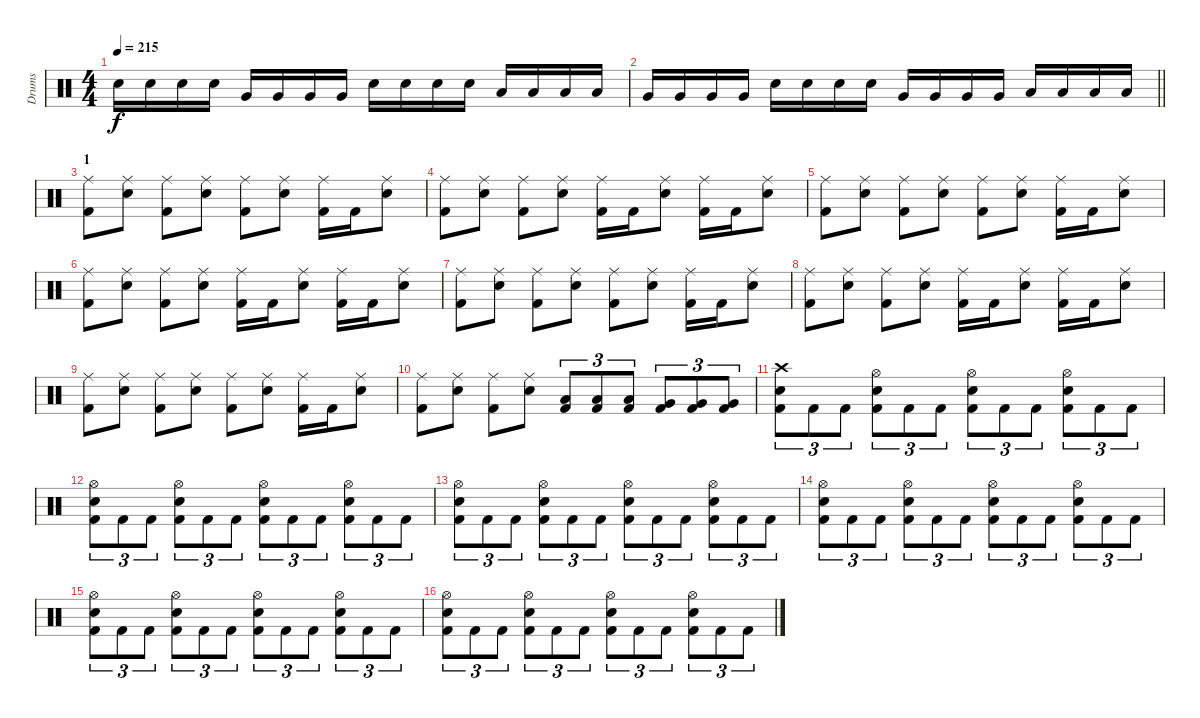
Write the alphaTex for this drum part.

\track ("Drums" "Drums") {instrument percussion}
\staff {score}
\articulation defaults
\ts (4 4)
\tempo 215
\clef neutral
\ks c "Electric Snare (hit)".16{dy f} "Electric Snare (hit)".16 "Electric Snare (hit)".16 "Electric Snare (hit)".16 "Very Low Tom (hit)".16 "Very Low Tom (hit)".16 "Very Low Tom (hit)".16 "Very Low Tom (hit)".16 "Electric Snare (hit)".16 "Electric Snare (hit)".16 "Electric Snare (hit)".16 "Electric Snare (hit)".16 "Low Tom (hit)".16 "Low Tom (hit)".16 "Low Tom (hit)".16 "Low Tom (hit)".16
|
\barLineRight lightlight "Very Low Tom (hit)".16 "Very Low Tom (hit)".16 "Very Low Tom (hit)".16 "Very Low Tom (hit)".16 "Electric Snare (hit)".16 "Electric Snare (hit)".16 "Electric Snare (hit)".16 "Electric Snare (hit)".16 "Very Low Tom (hit)".16 "Very Low Tom (hit)".16 "Very Low Tom (hit)".16 "Very Low Tom (hit)".16 "Low Floor Tom (hit)".16 "Low Floor Tom (hit)".16 "Low Floor Tom (hit)".16 "Low Floor Tom (hit)".16
|
\section ("" "1")
("Ride (middle)" "Kick (hit) 2").8 ("Ride (middle)" "Electric Snare (hit)").8 ("Ride (middle)" "Kick (hit) 2").8 ("Ride (middle)" "Electric Snare (hit)").8 ("Ride (middle)" "Kick (hit) 2").8 ("Ride (middle)" "Electric Snare (hit)").8 ("Ride (middle)" "Kick (hit) 2").16 "Kick (hit) 2".16 ("Ride (middle)" "Electric Snare (hit)").8 |
("Ride (middle)" "Kick (hit) 2").8 ("Ride (middle)" "Electric Snare (hit)").8 ("Ride (middle)" "Kick (hit) 2").8 ("Ride (middle)" "Electric Snare (hit)").8 ("Ride (middle)" "Kick (hit) 2").16 "Kick (hit) 2".16 ("Ride (middle)" "Electric Snare (hit)").8 ("Ride (middle)" "Kick (hit) 2").16 "Kick (hit) 2".16 ("Ride (middle)" "Electric Snare (hit)").8 |
("Ride (middle)" "Kick (hit) 2").8 ("Ride (middle)" "Electric Snare (hit)").8 ("Ride (middle)" "Kick (hit) 2").8 ("Ride (middle)" "Electric Snare (hit)").8 ("Ride (middle)" "Kick (hit) 2").8 ("Ride (middle)" "Electric Snare (hit)").8 ("Ride (middle)" "Kick (hit) 2").16 "Kick (hit) 2".16 ("Ride (middle)" "Electric Snare (hit)").8 |
("Ride (middle)" "Kick (hit) 2").8 ("Ride (middle)" "Electric Snare (hit)").8 ("Ride (middle)" "Kick (hit) 2").8 ("Ride (middle)" "Electric Snare (hit)").8 ("Ride (middle)" "Kick (hit) 2").16 "Kick (hit) 2".16 ("Ride (middle)" "Electric Snare (hit)").8 ("Ride (middle)" "Kick (hit) 2").16 "Kick (hit) 2".16 ("Ride (middle)" "Electric Snare (hit)").8 |
("Ride (middle)" "Kick (hit) 2").8 ("Ride (middle)" "Electric Snare (hit)").8 ("Ride (middle)" "Kick (hit) 2").8 ("Ride (middle)" "Electric Snare (hit)").8 ("Ride (middle)" "Kick (hit) 2").8 ("Ride (middle)" "Electric Snare (hit)").8 ("Ride (middle)" "Kick (hit) 2").16 "Kick (hit) 2".16 ("Ride (middle)" "Electric Snare (hit)").8 |
("Ride (middle)" "Kick (hit) 2").8 ("Ride (middle)" "Electric Snare (hit)").8 ("Ride (middle)" "Kick (hit) 2").8 ("Ride (middle)" "Electric Snare (hit)").8 ("Ride (middle)" "Kick (hit) 2").16 "Kick (hit) 2".16 ("Ride (middle)" "Electric Snare (hit)").8 ("Ride (middle)" "Kick (hit) 2").16 "Kick (hit) 2".16 ("Ride (middle)" "Electric Snare (hit)").8 |
("Ride (middle)" "Kick (hit) 2").8 ("Ride (middle)" "Electric Snare (hit)").8 ("Ride (middle)" "Kick (hit) 2").8 ("Ride (middle)" "Electric Snare (hit)").8 ("Ride (middle)" "Kick (hit) 2").8 ("Ride (middle)" "Electric Snare (hit)").8 ("Ride (middle)" "Kick (hit) 2").16 "Kick (hit) 2".16 ("Ride (middle)" "Electric Snare (hit)").8 |
("Ride (middle)" "Kick (hit) 2").8 ("Ride (middle)" "Electric Snare (hit)").8 ("Ride (middle)" "Kick (hit) 2").8 ("Ride (middle)" "Electric Snare (hit)").8 ("Low Tom (hit)" "Kick (hit) 2").8{tu (3 2)} ("Low Tom (hit)" "Kick (hit) 2").8{tu (3 2)} ("Low Tom (hit)" "Kick (hit) 2").8{tu (3 2)} ("Very Low Tom (hit)" "Kick (hit) 2").8{tu (3 2)} ("Very Low Tom (hit)" "Kick (hit) 2").8{tu (3 2)} ("Very Low Tom (hit)" "Kick (hit) 2").8{tu (3 2)} |
("Crash high (hit)" "Electric Snare (hit)" "Kick (hit) 2").8{tu (3 2)} "Kick (hit) 2".8{tu (3 2)} "Kick (hit) 2".8{tu (3 2)} ("Hi-Hat (open)" "Electric Snare (hit)" "Kick (hit) 2").8{tu (3 2)} "Kick (hit) 2".8{tu (3 2)} "Kick (hit) 2".8{tu (3 2)} ("Hi-Hat (open)" "Electric Snare (hit)" "Kick (hit) 2").8{tu (3 2)} "Kick (hit) 2".8{tu (3 2)} "Kick (hit) 2".8{tu (3 2)} ("Hi-Hat (open)" "Electric Snare (hit)" "Kick (hit) 2").8{tu (3 2)} "Kick (hit) 2".8{tu (3 2)} "Kick (hit) 2".8{tu (3 2)} |
("Hi-Hat (open)" "Electric Snare (hit)" "Kick (hit) 2").8{tu (3 2)} "Kick (hit) 2".8{tu (3 2)} "Kick (hit) 2".8{tu (3 2)} ("Hi-Hat (open)" "Electric Snare (hit)" "Kick (hit) 2").8{tu (3 2)} "Kick (hit) 2".8{tu (3 2)} "Kick (hit) 2".8{tu (3 2)} ("Hi-Hat (open)" "Electric Snare (hit)" "Kick (hit) 2").8{tu (3 2)} "Kick (hit) 2".8{tu (3 2)} "Kick (hit) 2".8{tu (3 2)} ("Hi-Hat (open)" "Electric Snare (hit)" "Kick (hit) 2").8{tu (3 2)} "Kick (hit) 2".8{tu (3 2)} "Kick (hit) 2".8{tu (3 2)} |
("Hi-Hat (open)" "Electric Snare (hit)" "Kick (hit) 2").8{tu (3 2)} "Kick (hit) 2".8{tu (3 2)} "Kick (hit) 2".8{tu (3 2)} ("Hi-Hat (open)" "Electric Snare (hit)" "Kick (hit) 2").8{tu (3 2)} "Kick (hit) 2".8{tu (3 2)} "Kick (hit) 2".8{tu (3 2)} ("Hi-Hat (open)" "Electric Snare (hit)" "Kick (hit) 2").8{tu (3 2)} "Kick (hit) 2".8{tu (3 2)} "Kick (hit) 2".8{tu (3 2)} ("Hi-Hat (open)" "Electric Snare (hit)" "Kick (hit) 2").8{tu (3 2)} "Kick (hit) 2".8{tu (3 2)} "Kick (hit) 2".8{tu (3 2)} |
("Hi-Hat (open)" "Electric Snare (hit)" "Kick (hit) 2").8{tu (3 2)} "Kick (hit) 2".8{tu (3 2)} "Kick (hit) 2".8{tu (3 2)} ("Hi-Hat (open)" "Electric Snare (hit)" "Kick (hit) 2").8{tu (3 2)} "Kick (hit) 2".8{tu (3 2)} "Kick (hit) 2".8{tu (3 2)} ("Hi-Hat (open)" "Electric Snare (hit)" "Kick (hit) 2").8{tu (3 2)} "Kick (hit) 2".8{tu (3 2)} "Kick (hit) 2".8{tu (3 2)} ("Hi-Hat (open)" "Electric Snare (hit)" "Kick (hit) 2").8{tu (3 2)} "Kick (hit) 2".8{tu (3 2)} "Kick (hit) 2".8{tu (3 2)} |
("Hi-Hat (open)" "Electric Snare (hit)" "Kick (hit) 2").8{tu (3 2)} "Kick (hit) 2".8{tu (3 2)} "Kick (hit) 2".8{tu (3 2)} ("Hi-Hat (open)" "Electric Snare (hit)" "Kick (hit) 2").8{tu (3 2)} "Kick (hit) 2".8{tu (3 2)} "Kick (hit) 2".8{tu (3 2)} ("Hi-Hat (open)" "Electric Snare (hit)" "Kick (hit) 2").8{tu (3 2)} "Kick (hit) 2".8{tu (3 2)} "Kick (hit) 2".8{tu (3 2)} ("Hi-Hat (open)" "Electric Snare (hit)" "Kick (hit) 2").8{tu (3 2)} "Kick (hit) 2".8{tu (3 2)} "Kick (hit) 2".8{tu (3 2)} |
("Hi-Hat (open)" "Electric Snare (hit)" "Kick (hit) 2").8{tu (3 2)} "Kick (hit) 2".8{tu (3 2)} "Kick (hit) 2".8{tu (3 2)} ("Hi-Hat (open)" "Electric Snare (hit)" "Kick (hit) 2").8{tu (3 2)} "Kick (hit) 2".8{tu (3 2)} "Kick (hit) 2".8{tu (3 2)} ("Hi-Hat (open)" "Electric Snare (hit)" "Kick (hit) 2").8{tu (3 2)} "Kick (hit) 2".8{tu (3 2)} "Kick (hit) 2".8{tu (3 2)} ("Hi-Hat (open)" "Electric Snare (hit)" "Kick (hit) 2").8{tu (3 2)} "Kick (hit) 2".8{tu (3 2)} "Kick (hit) 2".8{tu (3 2)}
